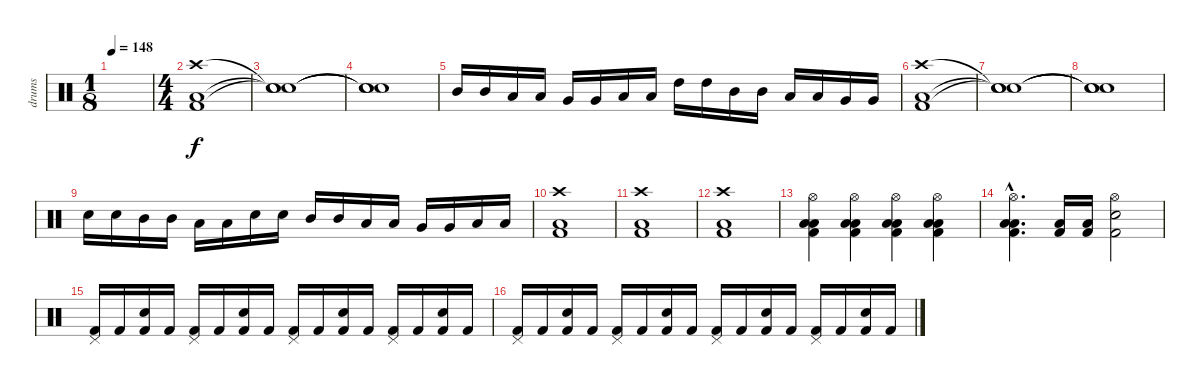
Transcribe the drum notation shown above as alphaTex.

\track ("drums" "drums") {instrument percussion}
\staff {score}
\articulation defaults
\ts (1 8)
\tempo 148
\clef neutral
\ks c
|
\ts (4 4)
("Crash high (hit)" "Low Floor Tom (hit)" "Kick (hit) 2").1 |
("Snare (hit)"{t} "Snare (hit)"{t} "Snare (hit)"{t}).1 |
("Snare (hit)"{t} "Snare (hit)"{t} "Snare (hit)"{t}).1 |
"Mid Tom (hit)".16 "Mid Tom (hit)".16 "Low Tom (hit)".16 "Low Tom (hit)".16 "Very Low Tom (hit)".16 "Very Low Tom (hit)".16 "Low Floor Tom (hit)".16 "Low Floor Tom (hit)".16 "High Tom (hit)".16 "High Tom (hit)".16 "Mid Tom (hit)".16 "Mid Tom (hit)".16 "Low Tom (hit)".16 "Low Tom (hit)".16 "Very Low Tom (hit)".16 "Very Low Tom (hit)".16 |
("Crash high (hit)" "Low Floor Tom (hit)" "Kick (hit) 2").1 |
("Snare (hit)"{t} "Snare (hit)"{t} "Snare (hit)"{t}).1 |
("Snare (hit)"{t} "Snare (hit)"{t} "Snare (hit)"{t}).1 |
"Snare (hit) 2".16 "Snare (hit) 2".16 "Mid Tom (hit)".16 "Mid Tom (hit)".16 "Low Tom (hit)".16 "Low Tom (hit)".16 "Snare (hit) 2".16 "Snare (hit) 2".16 "Mid Tom (hit)".16 "Mid Tom (hit)".16 "Low Tom (hit)".16 "Low Tom (hit)".16 "Very Low Tom (hit)".16 "Very Low Tom (hit)".16 "Low Floor Tom (hit)".16 "Low Floor Tom (hit)".16 |
("Crash high (hit)" "Low Floor Tom (hit)" "Kick (hit) 2").1 |
("Crash high (hit)" "Low Floor Tom (hit)" "Kick (hit) 2").1 |
("Crash high (hit)" "Low Floor Tom (hit)" "Kick (hit) 2").1 |
("Hi-Hat (open)" "Low Floor Tom (hit)" "Low Floor Tom (hit)" "Kick (hit) 2").4 ("Hi-Hat (open)" "Low Floor Tom (hit)" "Low Floor Tom (hit)" "Kick (hit) 2").4 ("Hi-Hat (open)" "Low Floor Tom (hit)" "Low Floor Tom (hit)" "Kick (hit) 2").4 ("Hi-Hat (open)" "Low Floor Tom (hit)" "Low Floor Tom (hit)" "Kick (hit) 2").4 |
("Hi-Hat (open)"{hac} "Low Floor Tom (hit)"{hac} "Low Floor Tom (hit)"{hac} "Kick (hit) 2"{hac}).4{d} ("Low Floor Tom (hit)" "Kick (hit) 2").16 ("Low Floor Tom (hit)" "Kick (hit) 2").16 ("Hi-Hat (open)" "Snare (hit) 2" "Kick (hit) 2").2 |
("Pedal Hi-Hat (hit)" "Kick (hit) 2").16 "Kick (hit) 2".16 ("Electric Snare (hit)" "Kick (hit) 2").16 "Kick (hit) 2".16 ("Pedal Hi-Hat (hit)" "Kick (hit) 2").16 "Kick (hit) 2".16 ("Electric Snare (hit)" "Kick (hit) 2").16 "Kick (hit) 2".16 ("Pedal Hi-Hat (hit)" "Kick (hit) 2").16 "Kick (hit) 2".16 ("Electric Snare (hit)" "Kick (hit) 2").16 "Kick (hit) 2".16 ("Pedal Hi-Hat (hit)" "Kick (hit) 2").16 "Kick (hit) 2".16 ("Electric Snare (hit)" "Kick (hit) 2").16 "Kick (hit) 2".16 |
("Pedal Hi-Hat (hit)" "Kick (hit) 2").16 "Kick (hit) 2".16 ("Electric Snare (hit)" "Kick (hit) 2").16 "Kick (hit) 2".16 ("Pedal Hi-Hat (hit)" "Kick (hit) 2").16 "Kick (hit) 2".16 ("Electric Snare (hit)" "Kick (hit) 2").16 "Kick (hit) 2".16 ("Pedal Hi-Hat (hit)" "Kick (hit) 2").16 "Kick (hit) 2".16 ("Electric Snare (hit)" "Kick (hit) 2").16 "Kick (hit) 2".16 ("Pedal Hi-Hat (hit)" "Kick (hit) 2").16 "Kick (hit) 2".16 ("Electric Snare (hit)" "Kick (hit) 2").16 "Kick (hit) 2".16
